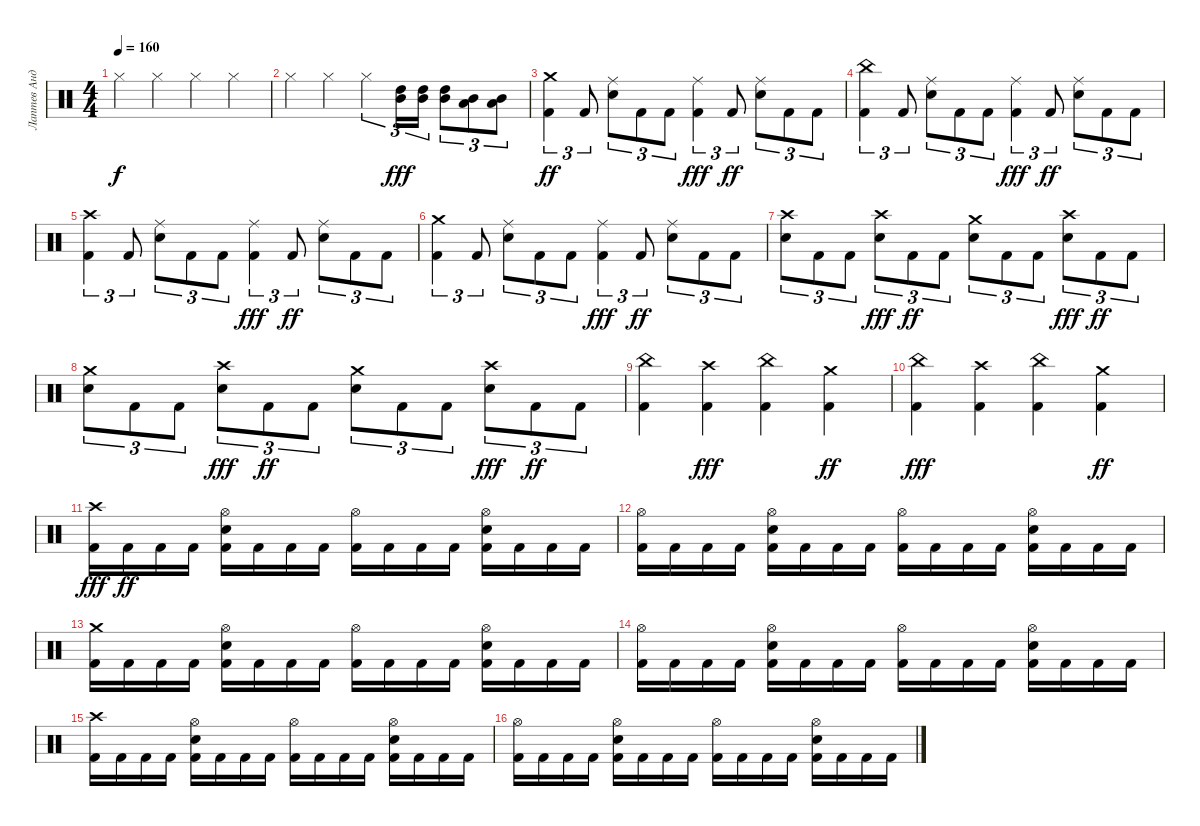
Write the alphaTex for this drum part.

\track ("Лаптев Андрей" "Лаптев Анд") {instrument percussion}
\staff {score}
\articulation defaults
\ts (4 4)
\tempo 160
\clef neutral
\ks c "Hi-Hat (closed)".4{dy f} "Hi-Hat (closed)".4 "Hi-Hat (closed)".4 "Hi-Hat (closed)".4
|
"Hi-Hat (closed)".4 "Hi-Hat (closed)".4 "Hi-Hat (closed)".4{tu (3 2)} ("Mid Tom (hit)" "High Tom (hit)").16{tu (3 2) dy fff} ("High Tom (hit)" "Mid Tom (hit)").16{tu (3 2)} ("Mid Tom (hit)" "High Tom (hit)").8{tu (3 2)} ("Low Tom (hit)" "Mid Tom (hit)").8{tu (3 2)} ("Low Tom (hit)" "Mid Tom (hit)").8{tu (3 2)} |
("Crash medium (hit)" "Kick (hit) 2").4{tu (3 2) dy ff} "Kick (hit) 2".8{tu (3 2)} ("Ride (middle)" "Electric Snare (hit)").8{tu (3 2)} "Kick (hit) 2".8{tu (3 2)} "Kick (hit) 2".8{tu (3 2)} ("Kick (hit) 2" "Ride (middle)").4{tu (3 2) dy fff} "Kick (hit) 2".8{tu (3 2) dy ff} ("Ride (middle)" "Electric Snare (hit)").8{tu (3 2)} "Kick (hit) 2".8{tu (3 2)} "Kick (hit) 2".8{tu (3 2)} |
("China (hit)" "Kick (hit) 2").4{tu (3 2)} "Kick (hit) 2".8{tu (3 2)} ("Ride (middle)" "Electric Snare (hit)").8{tu (3 2)} "Kick (hit) 2".8{tu (3 2)} "Kick (hit) 2".8{tu (3 2)} ("Kick (hit) 2" "Ride (middle)").4{tu (3 2) dy fff} "Kick (hit) 2".8{tu (3 2) dy ff} ("Ride (middle)" "Electric Snare (hit)").8{tu (3 2)} "Kick (hit) 2".8{tu (3 2)} "Kick (hit) 2".8{tu (3 2)} |
("Crash high (hit)" "Kick (hit) 2").4{tu (3 2)} "Kick (hit) 2".8{tu (3 2)} ("Ride (middle)" "Electric Snare (hit)").8{tu (3 2)} "Kick (hit) 2".8{tu (3 2)} "Kick (hit) 2".8{tu (3 2)} ("Kick (hit) 2" "Ride (middle)").4{tu (3 2) dy fff} "Kick (hit) 2".8{tu (3 2) dy ff} ("Ride (middle)" "Electric Snare (hit)").8{tu (3 2)} "Kick (hit) 2".8{tu (3 2)} "Kick (hit) 2".8{tu (3 2)} |
("Crash medium (hit)" "Kick (hit) 2").4{tu (3 2)} "Kick (hit) 2".8{tu (3 2)} ("Ride (middle)" "Electric Snare (hit)").8{tu (3 2)} "Kick (hit) 2".8{tu (3 2)} "Kick (hit) 2".8{tu (3 2)} ("Kick (hit) 2" "Ride (middle)").4{tu (3 2) dy fff} "Kick (hit) 2".8{tu (3 2) dy ff} ("Ride (middle)" "Electric Snare (hit)").8{tu (3 2)} "Kick (hit) 2".8{tu (3 2)} "Kick (hit) 2".8{tu (3 2)} |
("Crash high (hit)" "Electric Snare (hit)").8{tu (3 2)} "Kick (hit) 2".8{tu (3 2)} "Kick (hit) 2".8{tu (3 2)} ("Electric Snare (hit)" "Crash high (hit)").8{tu (3 2) dy fff} "Kick (hit) 2".8{tu (3 2) dy ff} "Kick (hit) 2".8{tu (3 2)} ("Crash medium (hit)" "Electric Snare (hit)").8{tu (3 2)} "Kick (hit) 2".8{tu (3 2)} "Kick (hit) 2".8{tu (3 2)} ("Electric Snare (hit)" "Crash high (hit)").8{tu (3 2) dy fff} "Kick (hit) 2".8{tu (3 2) dy ff} "Kick (hit) 2".8{tu (3 2)} |
("Crash medium (hit)" "Electric Snare (hit)").8{tu (3 2)} "Kick (hit) 2".8{tu (3 2)} "Kick (hit) 2".8{tu (3 2)} ("Electric Snare (hit)" "Crash high (hit)").8{tu (3 2) dy fff} "Kick (hit) 2".8{tu (3 2) dy ff} "Kick (hit) 2".8{tu (3 2)} ("Crash medium (hit)" "Electric Snare (hit)").8{tu (3 2)} "Kick (hit) 2".8{tu (3 2)} "Kick (hit) 2".8{tu (3 2)} ("Electric Snare (hit)" "Crash high (hit)").8{tu (3 2) dy fff} "Kick (hit) 2".8{tu (3 2) dy ff} "Kick (hit) 2".8{tu (3 2)} |
("China (hit)" "Kick (hit) 2").4 ("Kick (hit) 2" "Crash high (hit)").4{dy fff} ("Kick (hit) 2" "China (hit)").4 ("Crash medium (hit)" "Kick (hit) 2").4{dy ff} |
("Kick (hit) 2" "China (hit)").4{dy fff} ("Kick (hit) 2" "Crash high (hit)").4 ("Kick (hit) 2" "China (hit)").4 ("Crash medium (hit)" "Kick (hit) 2").4{dy ff} |
("Kick (hit) 2" "Crash high (hit)").16{dy fff} "Kick (hit) 2".16{dy ff} "Kick (hit) 2".16 "Kick (hit) 2".16 ("Hi-Hat (open)" "Kick (hit) 2" "Electric Snare (hit)").16 "Kick (hit) 2".16 "Kick (hit) 2".16 "Kick (hit) 2".16 ("Hi-Hat (open)" "Kick (hit) 2").16 "Kick (hit) 2".16 "Kick (hit) 2".16 "Kick (hit) 2".16 ("Hi-Hat (open)" "Electric Snare (hit)" "Kick (hit) 2").16 "Kick (hit) 2".16 "Kick (hit) 2".16 "Kick (hit) 2".16 |
("Hi-Hat (open)" "Kick (hit) 2").16 "Kick (hit) 2".16 "Kick (hit) 2".16 "Kick (hit) 2".16 ("Hi-Hat (open)" "Kick (hit) 2" "Electric Snare (hit)").16 "Kick (hit) 2".16 "Kick (hit) 2".16 "Kick (hit) 2".16 ("Hi-Hat (open)" "Kick (hit) 2").16 "Kick (hit) 2".16 "Kick (hit) 2".16 "Kick (hit) 2".16 ("Kick (hit) 2" "Electric Snare (hit)" "Hi-Hat (open)").16 "Kick (hit) 2".16 "Kick (hit) 2".16 "Kick (hit) 2".16 |
("Crash medium (hit)" "Kick (hit) 2").16 "Kick (hit) 2".16 "Kick (hit) 2".16 "Kick (hit) 2".16 ("Hi-Hat (open)" "Kick (hit) 2" "Electric Snare (hit)").16 "Kick (hit) 2".16 "Kick (hit) 2".16 "Kick (hit) 2".16 ("Hi-Hat (open)" "Kick (hit) 2").16 "Kick (hit) 2".16 "Kick (hit) 2".16 "Kick (hit) 2".16 ("Hi-Hat (open)" "Electric Snare (hit)" "Kick (hit) 2").16 "Kick (hit) 2".16 "Kick (hit) 2".16 "Kick (hit) 2".16 |
("Hi-Hat (open)" "Kick (hit) 2").16 "Kick (hit) 2".16 "Kick (hit) 2".16 "Kick (hit) 2".16 ("Kick (hit) 2" "Hi-Hat (open)" "Electric Snare (hit)").16 "Kick (hit) 2".16 "Kick (hit) 2".16 "Kick (hit) 2".16 ("Kick (hit) 2" "Hi-Hat (open)").16 "Kick (hit) 2".16 "Kick (hit) 2".16 "Kick (hit) 2".16 ("Electric Snare (hit)" "Kick (hit) 2" "Hi-Hat (open)").16 "Kick (hit) 2".16 "Kick (hit) 2".16 "Kick (hit) 2".16 |
("Crash high (hit)" "Kick (hit) 2").16 "Kick (hit) 2".16 "Kick (hit) 2".16 "Kick (hit) 2".16 ("Hi-Hat (open)" "Kick (hit) 2" "Electric Snare (hit)").16 "Kick (hit) 2".16 "Kick (hit) 2".16 "Kick (hit) 2".16 ("Hi-Hat (open)" "Kick (hit) 2").16 "Kick (hit) 2".16 "Kick (hit) 2".16 "Kick (hit) 2".16 ("Hi-Hat (open)" "Electric Snare (hit)" "Kick (hit) 2").16 "Kick (hit) 2".16 "Kick (hit) 2".16 "Kick (hit) 2".16 |
("Hi-Hat (open)" "Kick (hit) 2").16 "Kick (hit) 2".16 "Kick (hit) 2".16 "Kick (hit) 2".16 ("Kick (hit) 2" "Hi-Hat (open)" "Electric Snare (hit)").16 "Kick (hit) 2".16 "Kick (hit) 2".16 "Kick (hit) 2".16 ("Kick (hit) 2" "Hi-Hat (open)").16 "Kick (hit) 2".16 "Kick (hit) 2".16 "Kick (hit) 2".16 ("Electric Snare (hit)" "Kick (hit) 2" "Hi-Hat (open)").16 "Kick (hit) 2".16 "Kick (hit) 2".16 "Kick (hit) 2".16
